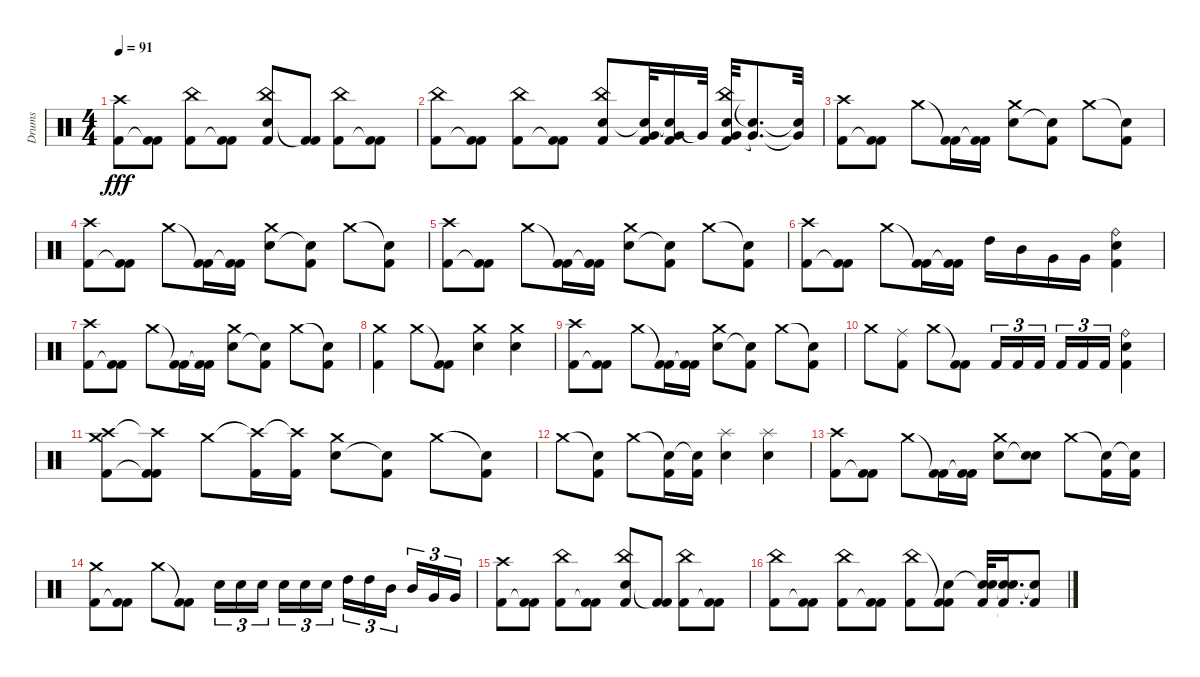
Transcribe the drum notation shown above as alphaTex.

\track ("Drums" "Drums") {instrument percussion}
\staff {score}
\articulation defaults
\ts (4 4)
\tempo 91
\clef neutral
\ks c
("Kick (hit) 2" "Crash high (hit)").8{dy fff} ("Kick (hit) 2"{t} "Kick (hit) 2").8 ("Kick (hit) 2" "China (hit)").8 ("Kick (hit) 2"{t} "Kick (hit) 2").8 ("Snare (hit) 2" "Kick (hit) 2" "China (hit)").8 ("Kick (hit) 2"{t} "Kick (hit) 2").8 ("Kick (hit) 2" "China (hit)").8 ("Kick (hit) 2"{t} "Kick (hit) 2").8 |
("Kick (hit) 2" "China (hit)").8 ("Kick (hit) 2"{t} "Kick (hit) 2").8 ("Kick (hit) 2" "China (hit)").8 ("Kick (hit) 2"{t} "Kick (hit) 2").8 ("Snare (hit) 2" "Kick (hit) 2" "China (hit)").8 ("Snare (hit) 2"{t} "Kick (hit) 2" "Very Low Tom (hit)").32 ("Snare (hit) 2"{t} "Kick (hit) 2" "Very Low Tom (hit)").16 "Very Low Tom (hit)"{t}.32 ("China (hit)" "Kick (hit) 2" "Snare (hit) 2" "Very Low Tom (hit)").32 ("Snare (hit) 2"{t} "Very Low Tom (hit)"{t}).8{d} ("Snare (hit) 2"{t} "Very Low Tom (hit)"{t}).32 |
("Kick (hit) 2" "Crash high (hit)").8 ("Kick (hit) 2"{t} "Kick (hit) 2").8 "Crash medium (hit)".8 ("Kick (hit) 2"{t} "Kick (hit) 2").16 ("Kick (hit) 2"{t} "Kick (hit) 2").16 ("Snare (hit) 2" "Crash medium (hit)").8 ("Snare (hit) 2"{t} "Kick (hit) 2").8 "Crash medium (hit)".8 ("Snare (hit) 2"{t} "Kick (hit) 2").8 |
("Kick (hit) 2" "Crash high (hit)").8 ("Kick (hit) 2"{t} "Kick (hit) 2").8 "Crash medium (hit)".8 ("Kick (hit) 2"{t} "Kick (hit) 2").16 ("Kick (hit) 2"{t} "Kick (hit) 2").16 ("Snare (hit) 2" "Crash medium (hit)").8 ("Snare (hit) 2"{t} "Kick (hit) 2").8 "Crash medium (hit)".8 ("Snare (hit) 2"{t} "Kick (hit) 2").8 |
("Kick (hit) 2" "Crash high (hit)").8 ("Kick (hit) 2"{t} "Kick (hit) 2").8 "Crash medium (hit)".8 ("Kick (hit) 2"{t} "Kick (hit) 2").16 ("Kick (hit) 2"{t} "Kick (hit) 2").16 ("Snare (hit) 2" "Crash medium (hit)").8 ("Snare (hit) 2"{t} "Kick (hit) 2").8 "Crash medium (hit)".8 ("Snare (hit) 2"{t} "Kick (hit) 2").8 |
("Kick (hit) 2" "Crash high (hit)").8 ("Kick (hit) 2"{t} "Kick (hit) 2").8 "Crash medium (hit)".8 ("Kick (hit) 2"{t} "Kick (hit) 2").16 ("Kick (hit) 2"{t} "Kick (hit) 2").16 "High Tom (hit)".16 "Mid Tom (hit)".16 "Very Low Tom (hit)".16 "Very Low Tom (hit)".16 ("Kick (hit) 2" "Snare (hit) 2" "Ride (bell)").4 |
("Kick (hit) 2" "Crash high (hit)").8 ("Kick (hit) 2"{t} "Kick (hit) 2").8 "Crash medium (hit)".8 ("Kick (hit) 2"{t} "Kick (hit) 2").16 ("Kick (hit) 2"{t} "Kick (hit) 2").16 ("Snare (hit) 2" "Crash medium (hit)").8 ("Snare (hit) 2"{t} "Kick (hit) 2").8 "Crash medium (hit)".8 ("Snare (hit) 2"{t} "Kick (hit) 2").8 |
("Kick (hit) 2" "Crash medium (hit)").4 "Crash medium (hit)".8 ("Kick (hit) 2"{t} "Kick (hit) 2").8 ("Snare (hit) 2" "Crash medium (hit)").4 ("Snare (hit) 2" "Crash medium (hit)").4 |
("Kick (hit) 2" "Crash high (hit)").8 ("Kick (hit) 2"{t} "Kick (hit) 2").8 "Crash medium (hit)".8 ("Kick (hit) 2"{t} "Kick (hit) 2").16 ("Kick (hit) 2"{t} "Kick (hit) 2").16 ("Snare (hit) 2" "Crash medium (hit)").8 ("Snare (hit) 2"{t} "Kick (hit) 2").8 "Crash medium (hit)".8 ("Snare (hit) 2"{t} "Kick (hit) 2").8 |
"Crash medium (hit)".8 ("Kick (hit) 2" "Ride (middle)").8 "Crash medium (hit)".8 ("Kick (hit) 2"{t} "Kick (hit) 2").8 "Kick (hit) 2".16{tu (3 2)} "Kick (hit) 2".16{tu (3 2)} "Kick (hit) 2".16{tu (3 2)} "Kick (hit) 2".16{tu (3 2)} "Kick (hit) 2".16{tu (3 2)} "Kick (hit) 2".16{tu (3 2)} ("Kick (hit) 2" "Snare (hit) 2" "Ride (bell)").4 |
("Kick (hit) 2" "Crash high (hit)" "Crash medium (hit)").8 ("Kick (hit) 2"{t} "Crash high (hit)"{t} "Kick (hit) 2").8 "Crash medium (hit)".8 ("Crash high (hit)"{t} "Kick (hit) 2").16 ("Crash high (hit)"{t} "Kick (hit) 2").16 ("Snare (hit) 2" "Crash medium (hit)").8 ("Snare (hit) 2"{t} "Kick (hit) 2").8 "Crash medium (hit)".8 ("Snare (hit) 2"{t} "Kick (hit) 2").8 |
"Crash medium (hit)".8 ("Snare (hit) 2"{t} "Kick (hit) 2").8 "Crash medium (hit)".8 ("Snare (hit) 2"{t} "Kick (hit) 2").16 ("Snare (hit) 2"{t} "Kick (hit) 2").16 ("Snare (hit) 2" "Splash (hit)").4 ("Snare (hit) 2" "Splash (hit)").4 |
("Kick (hit) 2" "Crash high (hit)").8 ("Kick (hit) 2"{t} "Kick (hit) 2").8 "Crash medium (hit)".8 ("Kick (hit) 2"{t} "Kick (hit) 2").16 ("Kick (hit) 2"{t} "Kick (hit) 2").16 ("Snare (hit) 2" "Crash medium (hit)").8 ("Snare (hit) 2"{t} "Snare (hit) 2").8 "Crash medium (hit)".8 ("Snare (hit) 2"{t} "Kick (hit) 2").16 ("Snare (hit) 2"{t} "Kick (hit) 2").16 |
("Kick (hit) 2" "Crash medium (hit)").8 ("Kick (hit) 2"{t} "Kick (hit) 2").8 "Crash medium (hit)".8 ("Kick (hit) 2"{t} "Kick (hit) 2").8 "Snare (hit) 2".16{tu (3 2)} "Snare (hit) 2".16{tu (3 2)} "Snare (hit) 2".16{tu (3 2)} "Snare (hit) 2".16{tu (3 2)} "Snare (hit) 2".16{tu (3 2)} "Snare (hit) 2".16{tu (3 2)} "High Tom (hit)".16{tu (3 2)} "High Tom (hit)".16{tu (3 2)} "Mid Tom (hit)".16{tu (3 2)} "Mid Tom (hit)".16{tu (3 2)} "Very Low Tom (hit)".16{tu (3 2)} "Very Low Tom (hit)".16{tu (3 2)} |
("Kick (hit) 2" "Crash high (hit)").8 ("Kick (hit) 2"{t} "Kick (hit) 2").8 ("Kick (hit) 2" "China (hit)").8 ("Kick (hit) 2"{t} "Kick (hit) 2").8 ("Snare (hit) 2" "Kick (hit) 2" "China (hit)").8 ("Kick (hit) 2"{t} "Kick (hit) 2").8 ("Kick (hit) 2" "China (hit)").8 ("Kick (hit) 2"{t} "Kick (hit) 2").8 |
("Kick (hit) 2" "China (hit)").8 ("Kick (hit) 2"{t} "Kick (hit) 2").8 ("Kick (hit) 2" "China (hit)").8 ("Kick (hit) 2"{t} "Kick (hit) 2").8 ("Kick (hit) 2" "China (hit)").8 ("Snare (hit) 2" "Kick (hit) 2"{t} "Kick (hit) 2").8 ("Snare (hit) 2"{t} "Snare (hit) 2" "Kick (hit) 2").32 ("Snare (hit) 2"{t} "Snare (hit) 2"{t} "Kick (hit) 2"{t}).16{d} ("Snare (hit) 2"{t} "Kick (hit) 2").8
